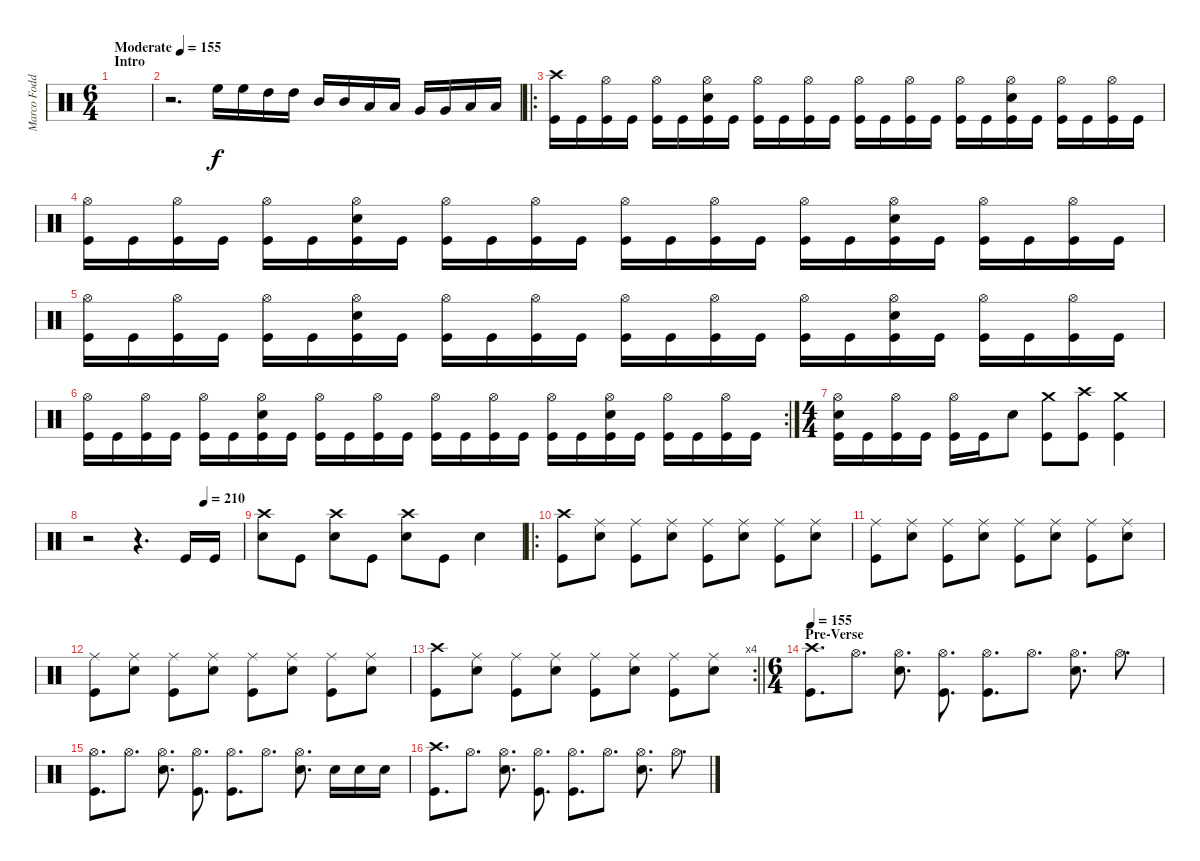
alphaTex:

\track ("Marco Foddis" "Marco Fodd") {instrument percussion}
\staff {score}
\articulation defaults
\ts (6 4)
\section ("" "Intro")
\tempo (155 "Moderate")
\clef neutral
\ks c
|
r.2{d} "High Floor Tom (hit)".16 "High Floor Tom (hit)".16 "High Tom (hit)".16 "High Tom (hit)".16 "Mid Tom (hit)".16 "Mid Tom (hit)".16 "Low Tom (hit)".16 "Low Tom (hit)".16 "Very Low Tom (hit)".16 "Very Low Tom (hit)".16 "Low Floor Tom (hit)".16 "Low Floor Tom (hit)".16 |
\ro
("Crash high (hit)" "Kick (hit)").16 "Kick (hit)".16 ("Hi-Hat (open)" "Kick (hit)").16 "Kick (hit)".16 ("Hi-Hat (open)" "Kick (hit)").16 "Kick (hit)".16 ("Hi-Hat (open)" "Snare (hit) 2" "Kick (hit)").16 "Kick (hit)".16 ("Hi-Hat (open)" "Kick (hit)").16 "Kick (hit)".16 ("Hi-Hat (open)" "Kick (hit)").16 "Kick (hit)".16 ("Hi-Hat (open)" "Kick (hit)").16 "Kick (hit)".16 ("Hi-Hat (open)" "Kick (hit)").16 "Kick (hit)".16 ("Hi-Hat (open)" "Kick (hit)").16 "Kick (hit)".16 ("Hi-Hat (open)" "Snare (hit) 2" "Kick (hit)").16 "Kick (hit)".16 ("Hi-Hat (open)" "Kick (hit)").16 "Kick (hit)".16 ("Hi-Hat (open)" "Kick (hit)").16 "Kick (hit)".16 |
("Hi-Hat (open)" "Kick (hit)").16 "Kick (hit)".16 ("Hi-Hat (open)" "Kick (hit)").16 "Kick (hit)".16 ("Hi-Hat (open)" "Kick (hit)").16 "Kick (hit)".16 ("Hi-Hat (open)" "Snare (hit) 2" "Kick (hit)").16 "Kick (hit)".16 ("Hi-Hat (open)" "Kick (hit)").16 "Kick (hit)".16 ("Hi-Hat (open)" "Kick (hit)").16 "Kick (hit)".16 ("Hi-Hat (open)" "Kick (hit)").16 "Kick (hit)".16 ("Hi-Hat (open)" "Kick (hit)").16 "Kick (hit)".16 ("Hi-Hat (open)" "Kick (hit)").16 "Kick (hit)".16 ("Hi-Hat (open)" "Snare (hit) 2" "Kick (hit)").16 "Kick (hit)".16 ("Hi-Hat (open)" "Kick (hit)").16 "Kick (hit)".16 ("Hi-Hat (open)" "Kick (hit)").16 "Kick (hit)".16 |
("Hi-Hat (open)" "Kick (hit)").16 "Kick (hit)".16 ("Hi-Hat (open)" "Kick (hit)").16 "Kick (hit)".16 ("Hi-Hat (open)" "Kick (hit)").16 "Kick (hit)".16 ("Hi-Hat (open)" "Snare (hit) 2" "Kick (hit)").16 "Kick (hit)".16 ("Hi-Hat (open)" "Kick (hit)").16 "Kick (hit)".16 ("Hi-Hat (open)" "Kick (hit)").16 "Kick (hit)".16 ("Hi-Hat (open)" "Kick (hit)").16 "Kick (hit)".16 ("Hi-Hat (open)" "Kick (hit)").16 "Kick (hit)".16 ("Hi-Hat (open)" "Kick (hit)").16 "Kick (hit)".16 ("Hi-Hat (open)" "Snare (hit) 2" "Kick (hit)").16 "Kick (hit)".16 ("Hi-Hat (open)" "Kick (hit)").16 "Kick (hit)".16 ("Hi-Hat (open)" "Kick (hit)").16 "Kick (hit)".16 |
\rc 2
("Hi-Hat (open)" "Kick (hit)").16 "Kick (hit)".16 ("Hi-Hat (open)" "Kick (hit)").16 "Kick (hit)".16 ("Hi-Hat (open)" "Kick (hit)").16 "Kick (hit)".16 ("Hi-Hat (open)" "Snare (hit) 2" "Kick (hit)").16 "Kick (hit)".16 ("Hi-Hat (open)" "Kick (hit)").16 "Kick (hit)".16 ("Hi-Hat (open)" "Kick (hit)").16 "Kick (hit)".16 ("Hi-Hat (open)" "Kick (hit)").16 "Kick (hit)".16 ("Hi-Hat (open)" "Kick (hit)").16 "Kick (hit)".16 ("Hi-Hat (open)" "Kick (hit)").16 "Kick (hit)".16 ("Hi-Hat (open)" "Snare (hit) 2" "Kick (hit)").16 "Kick (hit)".16 ("Hi-Hat (open)" "Kick (hit)").16 "Kick (hit)".16 ("Hi-Hat (open)" "Kick (hit)").16 "Kick (hit)".16 |
\ts (4 4)
("Hi-Hat (open)" "Snare (hit) 2" "Kick (hit)").16 "Kick (hit)".16 ("Hi-Hat (open)" "Kick (hit)").16 "Kick (hit)".16 ("Hi-Hat (open)" "Kick (hit)").16 "Kick (hit)".16 "Snare (hit) 2".8 ("Crash medium (hit)" "Kick (hit)").8 ("Crash high (hit)" "Kick (hit)").8 ("Crash medium (hit)" "Kick (hit)").4 |
\tempo (210 0.75)
r.2 r.4{d} "Kick (hit)".16 "Kick (hit)".16 |
("Crash high (hit)" "Snare (hit) 2").8 "Kick (hit)".8 ("Crash high (hit)" "Snare (hit) 2").8 "Kick (hit)".8 ("Crash high (hit)" "Snare (hit) 2").8 "Kick (hit)".8 "Snare (hit) 2".4 |
\ro
("Crash high (hit)" "Kick (hit)").8 ("Ride (middle)" "Snare (hit) 2").8 ("Ride (middle)" "Kick (hit)").8 ("Ride (middle)" "Snare (hit) 2").8 ("Ride (middle)" "Kick (hit)").8 ("Ride (middle)" "Snare (hit) 2").8 ("Ride (middle)" "Kick (hit)").8 ("Ride (middle)" "Snare (hit) 2").8 |
("Ride (middle)" "Kick (hit)").8 ("Ride (middle)" "Snare (hit) 2").8 ("Ride (middle)" "Kick (hit)").8 ("Ride (middle)" "Snare (hit) 2").8 ("Ride (middle)" "Kick (hit)").8 ("Ride (middle)" "Snare (hit) 2").8 ("Ride (middle)" "Kick (hit)").8 ("Ride (middle)" "Snare (hit) 2").8 |
("Ride (middle)" "Kick (hit)").8 ("Ride (middle)" "Snare (hit) 2").8 ("Ride (middle)" "Kick (hit)").8 ("Ride (middle)" "Snare (hit) 2").8 ("Ride (middle)" "Kick (hit)").8 ("Ride (middle)" "Snare (hit) 2").8 ("Ride (middle)" "Kick (hit)").8 ("Ride (middle)" "Snare (hit) 2").8 |
\rc 4
\barLineRight lightlight
("Crash high (hit)" "Kick (hit)").8 ("Ride (middle)" "Snare (hit) 2").8 ("Ride (middle)" "Kick (hit)").8 ("Ride (middle)" "Snare (hit) 2").8 ("Ride (middle)" "Kick (hit)").8 ("Ride (middle)" "Snare (hit) 2").8 ("Ride (middle)" "Kick (hit)").8 ("Ride (middle)" "Snare (hit) 2").8 |
\ts (6 4)
\section ("" "Pre-Verse")
\tempo 155
("Crash high (hit)" "Kick (hit)").8{d} "Hi-Hat (open)".8{d} ("Hi-Hat (open)" "Snare (hit) 2").8{d} ("Hi-Hat (open)" "Kick (hit)").8{d} ("Hi-Hat (open)" "Kick (hit)").8{d} "Hi-Hat (open)".8{d} ("Hi-Hat (open)" "Snare (hit) 2").8{d} "Hi-Hat (open)".8{d} |
("Hi-Hat (open)" "Kick (hit)").8{d} "Hi-Hat (open)".8{d} ("Hi-Hat (open)" "Snare (hit) 2").8{d} ("Hi-Hat (open)" "Kick (hit)").8{d} ("Hi-Hat (open)" "Kick (hit)").8{d} "Hi-Hat (open)".8{d} ("Hi-Hat (open)" "Snare (hit) 2").8{d} "Snare (hit) 2".16 "Snare (hit) 2".16 "Snare (hit) 2".16 |
("Crash high (hit)" "Kick (hit)").8{d} "Hi-Hat (open)".8{d} ("Hi-Hat (open)" "Snare (hit) 2").8{d} ("Hi-Hat (open)" "Kick (hit)").8{d} ("Hi-Hat (open)" "Kick (hit)").8{d} "Hi-Hat (open)".8{d} ("Hi-Hat (open)" "Snare (hit) 2").8{d} "Hi-Hat (open)".8{d}
